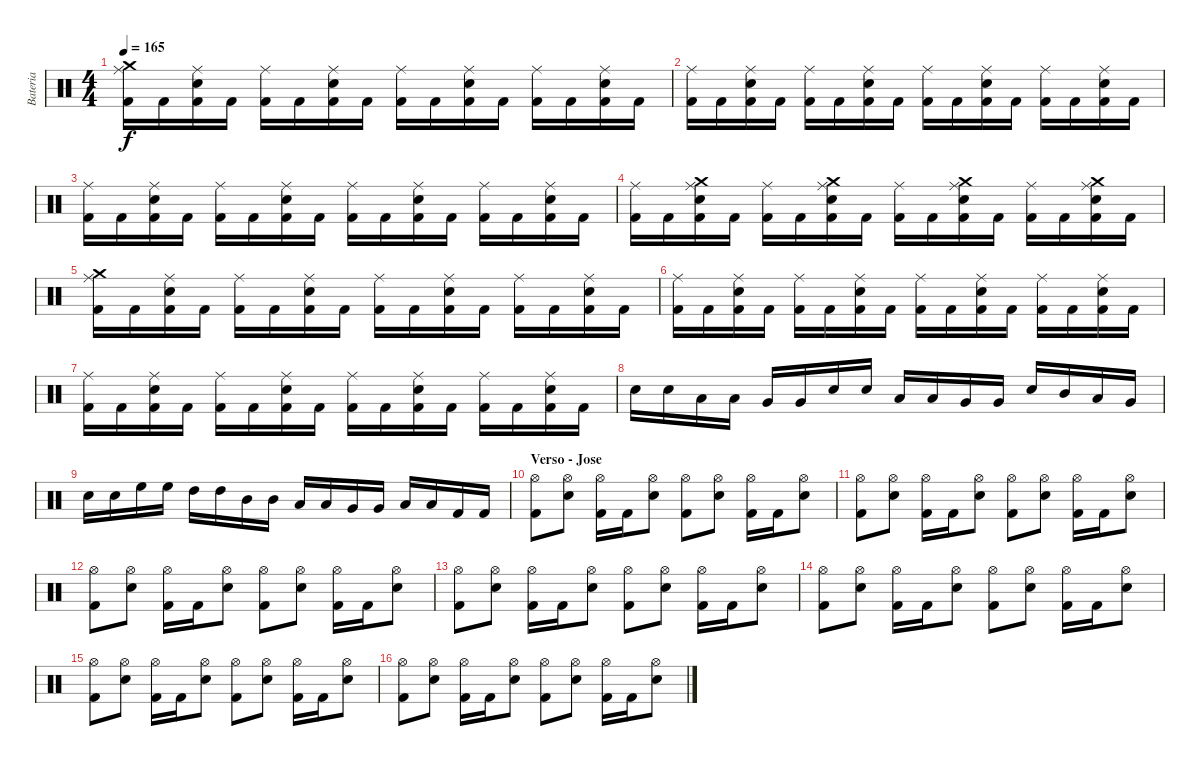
\track ("Bateria" "Bateria") {instrument percussion}
\staff {score}
\articulation defaults
\ts (4 4)
\tempo 165
\clef neutral
\ks c
("Crash medium (hit)" "Ride (middle)" "Kick (hit) 2").16{dy f} "Kick (hit) 2".16 ("Snare (hit) 2" "Ride (middle)" "Kick (hit) 2").16 "Kick (hit) 2".16 ("Ride (middle)" "Kick (hit) 2").16 "Kick (hit) 2".16 ("Snare (hit) 2" "Ride (middle)" "Kick (hit) 2").16 "Kick (hit) 2".16 ("Ride (middle)" "Kick (hit) 2").16 "Kick (hit) 2".16 ("Snare (hit) 2" "Ride (middle)" "Kick (hit) 2").16 "Kick (hit) 2".16 ("Ride (middle)" "Kick (hit) 2").16 "Kick (hit) 2".16 ("Snare (hit) 2" "Ride (middle)" "Kick (hit) 2").16 "Kick (hit) 2".16 |
("Ride (middle)" "Kick (hit) 2").16 "Kick (hit) 2".16 ("Snare (hit) 2" "Ride (middle)" "Kick (hit) 2").16 "Kick (hit) 2".16 ("Ride (middle)" "Kick (hit) 2").16 "Kick (hit) 2".16 ("Snare (hit) 2" "Ride (middle)" "Kick (hit) 2").16 "Kick (hit) 2".16 ("Ride (middle)" "Kick (hit) 2").16 "Kick (hit) 2".16 ("Snare (hit) 2" "Ride (middle)" "Kick (hit) 2").16 "Kick (hit) 2".16 ("Ride (middle)" "Kick (hit) 2").16 "Kick (hit) 2".16 ("Snare (hit) 2" "Ride (middle)" "Kick (hit) 2").16 "Kick (hit) 2".16 |
("Ride (middle)" "Kick (hit) 2").16 "Kick (hit) 2".16 ("Snare (hit) 2" "Ride (middle)" "Kick (hit) 2").16 "Kick (hit) 2".16 ("Ride (middle)" "Kick (hit) 2").16 "Kick (hit) 2".16 ("Snare (hit) 2" "Ride (middle)" "Kick (hit) 2").16 "Kick (hit) 2".16 ("Ride (middle)" "Kick (hit) 2").16 "Kick (hit) 2".16 ("Snare (hit) 2" "Ride (middle)" "Kick (hit) 2").16 "Kick (hit) 2".16 ("Ride (middle)" "Kick (hit) 2").16 "Kick (hit) 2".16 ("Snare (hit) 2" "Ride (middle)" "Kick (hit) 2").16 "Kick (hit) 2".16 |
("Ride (middle)" "Kick (hit) 2").16 "Kick (hit) 2".16 ("Crash medium (hit)" "Snare (hit) 2" "Ride (middle)" "Kick (hit) 2").16 "Kick (hit) 2".16 ("Ride (middle)" "Kick (hit) 2").16 "Kick (hit) 2".16 ("Crash medium (hit)" "Snare (hit) 2" "Ride (middle)" "Kick (hit) 2").16 "Kick (hit) 2".16 ("Ride (middle)" "Kick (hit) 2").16 "Kick (hit) 2".16 ("Crash medium (hit)" "Snare (hit) 2" "Ride (middle)" "Kick (hit) 2").16 "Kick (hit) 2".16 ("Ride (middle)" "Kick (hit) 2").16 "Kick (hit) 2".16 ("Crash medium (hit)" "Snare (hit) 2" "Ride (middle)" "Kick (hit) 2").16 "Kick (hit) 2".16 |
("Crash medium (hit)" "Ride (middle)" "Kick (hit) 2").16 "Kick (hit) 2".16 ("Snare (hit) 2" "Ride (middle)" "Kick (hit) 2").16 "Kick (hit) 2".16 ("Ride (middle)" "Kick (hit) 2").16 "Kick (hit) 2".16 ("Snare (hit) 2" "Ride (middle)" "Kick (hit) 2").16 "Kick (hit) 2".16 ("Ride (middle)" "Kick (hit) 2").16 "Kick (hit) 2".16 ("Snare (hit) 2" "Ride (middle)" "Kick (hit) 2").16 "Kick (hit) 2".16 ("Ride (middle)" "Kick (hit) 2").16 "Kick (hit) 2".16 ("Snare (hit) 2" "Ride (middle)" "Kick (hit) 2").16 "Kick (hit) 2".16 |
("Ride (middle)" "Kick (hit) 2").16 "Kick (hit) 2".16 ("Snare (hit) 2" "Ride (middle)" "Kick (hit) 2").16 "Kick (hit) 2".16 ("Ride (middle)" "Kick (hit) 2").16 "Kick (hit) 2".16 ("Snare (hit) 2" "Ride (middle)" "Kick (hit) 2").16 "Kick (hit) 2".16 ("Ride (middle)" "Kick (hit) 2").16 "Kick (hit) 2".16 ("Snare (hit) 2" "Ride (middle)" "Kick (hit) 2").16 "Kick (hit) 2".16 ("Ride (middle)" "Kick (hit) 2").16 "Kick (hit) 2".16 ("Snare (hit) 2" "Ride (middle)" "Kick (hit) 2").16 "Kick (hit) 2".16 |
("Ride (middle)" "Kick (hit) 2").16 "Kick (hit) 2".16 ("Snare (hit) 2" "Ride (middle)" "Kick (hit) 2").16 "Kick (hit) 2".16 ("Ride (middle)" "Kick (hit) 2").16 "Kick (hit) 2".16 ("Snare (hit) 2" "Ride (middle)" "Kick (hit) 2").16 "Kick (hit) 2".16 ("Ride (middle)" "Kick (hit) 2").16 "Kick (hit) 2".16 ("Snare (hit) 2" "Ride (middle)" "Kick (hit) 2").16 "Kick (hit) 2".16 ("Ride (middle)" "Kick (hit) 2").16 "Kick (hit) 2".16 ("Snare (hit) 2" "Ride (middle)" "Kick (hit) 2").16 "Kick (hit) 2".16 |
"Snare (hit) 2".16 "Snare (hit) 2".16 "Low Tom (hit)".16 "Low Tom (hit)".16 "Very Low Tom (hit)".16 "Very Low Tom (hit)".16 "Snare (hit) 2".16 "Snare (hit) 2".16 "Low Tom (hit)".16 "Low Tom (hit)".16 "Very Low Tom (hit)".16 "Very Low Tom (hit)".16 "Snare (hit) 2".16 "Mid Tom (hit)".16 "Low Tom (hit)".16 "Very Low Tom (hit)".16 |
"Snare (hit) 2".16 "Snare (hit) 2".16 "High Floor Tom (hit)".16 "High Floor Tom (hit)".16 "High Tom (hit)".16 "High Tom (hit)".16 "Mid Tom (hit)".16 "Mid Tom (hit)".16 "Low Tom (hit)".16 "Low Tom (hit)".16 "Very Low Tom (hit)".16 "Very Low Tom (hit)".16 "Low Floor Tom (hit)".16 "Low Floor Tom (hit)".16 "Kick (hit) 2".16 "Kick (hit) 2".16 |
\section ("" "Verso - Jose")
("Hi-Hat (open)" "Kick (hit) 2").8 ("Snare (hit) 2" "Hi-Hat (open)").8 ("Kick (hit) 2" "Hi-Hat (open)").16 "Kick (hit) 2".16 ("Snare (hit) 2" "Hi-Hat (open)").8 ("Hi-Hat (open)" "Kick (hit) 2").8 ("Snare (hit) 2" "Hi-Hat (open)").8 ("Kick (hit) 2" "Hi-Hat (open)").16 "Kick (hit) 2".16 ("Snare (hit) 2" "Hi-Hat (open)").8 |
("Hi-Hat (open)" "Kick (hit) 2").8 ("Snare (hit) 2" "Hi-Hat (open)").8 ("Kick (hit) 2" "Hi-Hat (open)").16 "Kick (hit) 2".16 ("Snare (hit) 2" "Hi-Hat (open)").8 ("Hi-Hat (open)" "Kick (hit) 2").8 ("Snare (hit) 2" "Hi-Hat (open)").8 ("Kick (hit) 2" "Hi-Hat (open)").16 "Kick (hit) 2".16 ("Snare (hit) 2" "Hi-Hat (open)").8 |
("Hi-Hat (open)" "Kick (hit) 2").8 ("Snare (hit) 2" "Hi-Hat (open)").8 ("Kick (hit) 2" "Hi-Hat (open)").16 "Kick (hit) 2".16 ("Snare (hit) 2" "Hi-Hat (open)").8 ("Hi-Hat (open)" "Kick (hit) 2").8 ("Snare (hit) 2" "Hi-Hat (open)").8 ("Kick (hit) 2" "Hi-Hat (open)").16 "Kick (hit) 2".16 ("Snare (hit) 2" "Hi-Hat (open)").8 |
("Hi-Hat (open)" "Kick (hit) 2").8 ("Snare (hit) 2" "Hi-Hat (open)").8 ("Kick (hit) 2" "Hi-Hat (open)").16 "Kick (hit) 2".16 ("Snare (hit) 2" "Hi-Hat (open)").8 ("Hi-Hat (open)" "Kick (hit) 2").8 ("Snare (hit) 2" "Hi-Hat (open)").8 ("Kick (hit) 2" "Hi-Hat (open)").16 "Kick (hit) 2".16 ("Snare (hit) 2" "Hi-Hat (open)").8 |
("Hi-Hat (open)" "Kick (hit) 2").8 ("Snare (hit) 2" "Hi-Hat (open)").8 ("Kick (hit) 2" "Hi-Hat (open)").16 "Kick (hit) 2".16 ("Snare (hit) 2" "Hi-Hat (open)").8 ("Hi-Hat (open)" "Kick (hit) 2").8 ("Snare (hit) 2" "Hi-Hat (open)").8 ("Kick (hit) 2" "Hi-Hat (open)").16 "Kick (hit) 2".16 ("Snare (hit) 2" "Hi-Hat (open)").8 |
("Hi-Hat (open)" "Kick (hit) 2").8 ("Snare (hit) 2" "Hi-Hat (open)").8 ("Kick (hit) 2" "Hi-Hat (open)").16 "Kick (hit) 2".16 ("Snare (hit) 2" "Hi-Hat (open)").8 ("Hi-Hat (open)" "Kick (hit) 2").8 ("Snare (hit) 2" "Hi-Hat (open)").8 ("Kick (hit) 2" "Hi-Hat (open)").16 "Kick (hit) 2".16 ("Snare (hit) 2" "Hi-Hat (open)").8 |
("Hi-Hat (open)" "Kick (hit) 2").8 ("Snare (hit) 2" "Hi-Hat (open)").8 ("Kick (hit) 2" "Hi-Hat (open)").16 "Kick (hit) 2".16 ("Snare (hit) 2" "Hi-Hat (open)").8 ("Hi-Hat (open)" "Kick (hit) 2").8 ("Snare (hit) 2" "Hi-Hat (open)").8 ("Kick (hit) 2" "Hi-Hat (open)").16 "Kick (hit) 2".16 ("Snare (hit) 2" "Hi-Hat (open)").8
